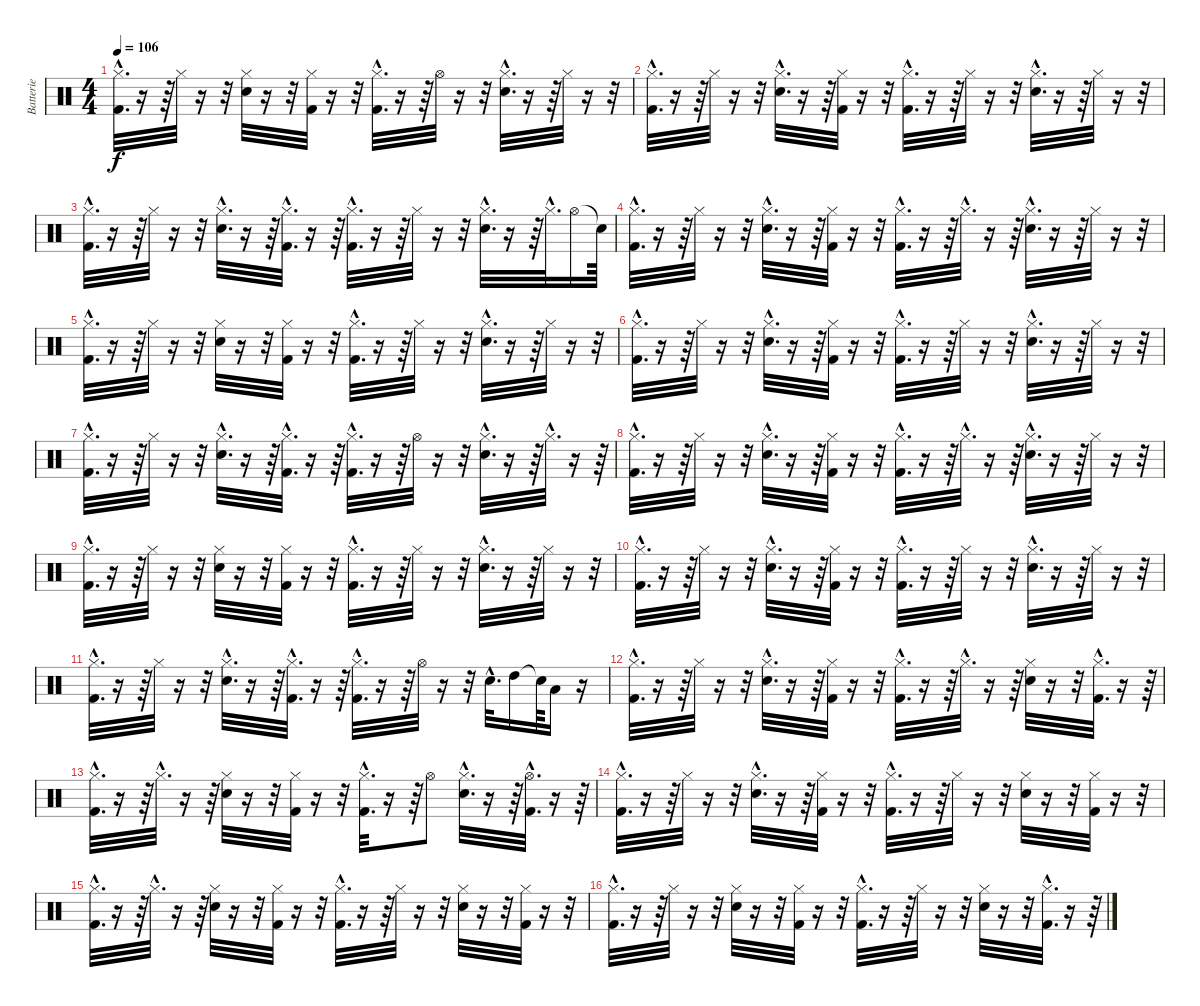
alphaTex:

\track ("Batterie" "Batterie") {instrument percussion}
\staff {score}
\articulation defaults
\ts (4 4)
\tempo 106
\clef neutral
\ks c
("Hi-Hat (closed)"{hac} "Kick (hit) 2"{hac}).32{d dy f} r.16 r.64 "Hi-Hat (closed)".32 r.16 r.32 ("Hi-Hat (closed)" "Snare (hit) 2").32 r.16 r.32 ("Hi-Hat (closed)" "Kick (hit) 2").32 r.16 r.32 ("Hi-Hat (closed)"{hac} "Kick (hit) 2"{hac}).32{d} r.16 r.64 "Hi-Hat (open)".32 r.16 r.32 ("Hi-Hat (closed)"{hac} "Snare (hit) 2"{hac}).32{d} r.16 r.64 "Hi-Hat (closed)".32 r.16 r.32 |
("Hi-Hat (closed)"{hac} "Kick (hit) 2"{hac}).32{d} r.16 r.64 "Hi-Hat (closed)".32 r.16 r.32 ("Hi-Hat (closed)"{hac} "Snare (hit) 2"{hac}).32{d} r.16 r.64 ("Hi-Hat (closed)" "Kick (hit) 2").32 r.16 r.32 ("Hi-Hat (closed)"{hac} "Kick (hit) 2"{hac}).32{d} r.16 r.64 "Hi-Hat (closed)".32 r.16 r.32 ("Hi-Hat (closed)"{hac} "Snare (hit) 2"{hac}).32{d} r.16 r.64 "Hi-Hat (closed)".32 r.16 r.32 |
("Hi-Hat (closed)"{hac} "Kick (hit) 2"{hac}).32{d} r.16 r.64 "Hi-Hat (closed)".32 r.16 r.32 ("Hi-Hat (closed)"{hac} "Snare (hit) 2"{hac}).32{d} r.16 r.64 ("Hi-Hat (closed)"{hac} "Kick (hit) 2"{hac}).32{d} r.16 r.64 ("Hi-Hat (closed)"{hac} "Kick (hit) 2"{hac}).32{d} r.16 r.64 "Hi-Hat (closed)".32 r.16 r.32 ("Hi-Hat (closed)"{hac} "Snare (hit) 2"{hac}).32{d} r.16 r.64 "Hi-Hat (closed)"{hac}.32{d} "Hi-Hat (open)".16 "Snare (hit)"{t}.64 |
("Hi-Hat (closed)"{hac} "Kick (hit) 2"{hac}).32{d} r.16 r.64 "Hi-Hat (closed)".32 r.16 r.32 ("Hi-Hat (closed)"{hac} "Snare (hit) 2"{hac}).32{d} r.16 r.64 ("Hi-Hat (closed)" "Kick (hit) 2").32 r.16 r.32 ("Hi-Hat (closed)"{hac} "Kick (hit) 2"{hac}).32{d} r.16 r.64 "Hi-Hat (closed)"{hac}.32{d} r.16 r.64 ("Hi-Hat (closed)"{hac} "Snare (hit) 2"{hac}).32{d} r.16 r.64 "Hi-Hat (closed)".32 r.16 r.32 |
("Hi-Hat (closed)"{hac} "Kick (hit) 2"{hac}).32{d} r.16 r.64 "Hi-Hat (closed)".32 r.16 r.32 ("Hi-Hat (closed)" "Snare (hit) 2").32 r.16 r.32 ("Hi-Hat (closed)" "Kick (hit) 2").32 r.16 r.32 ("Hi-Hat (closed)"{hac} "Kick (hit) 2"{hac}).32{d} r.16 r.64 "Hi-Hat (closed)".32 r.16 r.32 ("Hi-Hat (closed)"{hac} "Snare (hit) 2"{hac}).32{d} r.16 r.64 "Hi-Hat (closed)".32 r.16 r.32 |
("Hi-Hat (closed)"{hac} "Kick (hit) 2"{hac}).32{d} r.16 r.64 "Hi-Hat (closed)".32 r.16 r.32 ("Hi-Hat (closed)"{hac} "Snare (hit) 2"{hac}).32{d} r.16 r.64 ("Hi-Hat (closed)" "Kick (hit) 2").32 r.16 r.32 ("Hi-Hat (closed)"{hac} "Kick (hit) 2"{hac}).32{d} r.16 r.64 "Hi-Hat (closed)".32 r.16 r.32 ("Hi-Hat (closed)"{hac} "Snare (hit) 2"{hac}).32{d} r.16 r.64 "Hi-Hat (closed)".32 r.16 r.32 |
("Hi-Hat (closed)"{hac} "Kick (hit) 2"{hac}).32{d} r.16 r.64 "Hi-Hat (closed)".32 r.16 r.32 ("Hi-Hat (closed)"{hac} "Snare (hit) 2"{hac}).32{d} r.16 r.64 ("Hi-Hat (closed)"{hac} "Kick (hit) 2"{hac}).32{d} r.16 r.64 ("Hi-Hat (closed)"{hac} "Kick (hit) 2"{hac}).32{d} r.16 r.64 "Hi-Hat (open)".32 r.16 r.32 ("Hi-Hat (closed)"{hac} "Snare (hit) 2"{hac}).32{d} r.16 r.64 "Hi-Hat (closed)"{hac}.32{d} r.16 r.64 |
("Hi-Hat (closed)"{hac} "Kick (hit) 2"{hac}).32{d} r.16 r.64 "Hi-Hat (closed)".32 r.16 r.32 ("Hi-Hat (closed)"{hac} "Snare (hit) 2"{hac}).32{d} r.16 r.64 ("Hi-Hat (closed)" "Kick (hit) 2").32 r.16 r.32 ("Hi-Hat (closed)"{hac} "Kick (hit) 2"{hac}).32{d} r.16 r.64 "Hi-Hat (closed)"{hac}.32{d} r.16 r.64 ("Hi-Hat (closed)"{hac} "Snare (hit) 2"{hac}).32{d} r.16 r.64 "Hi-Hat (closed)".32 r.16 r.32 |
("Hi-Hat (closed)"{hac} "Kick (hit) 2"{hac}).32{d} r.16 r.64 "Hi-Hat (closed)".32 r.16 r.32 ("Hi-Hat (closed)" "Snare (hit) 2").32 r.16 r.32 ("Hi-Hat (closed)" "Kick (hit) 2").32 r.16 r.32 ("Hi-Hat (closed)"{hac} "Kick (hit) 2"{hac}).32{d} r.16 r.64 "Hi-Hat (closed)".32 r.16 r.32 ("Hi-Hat (closed)"{hac} "Snare (hit) 2"{hac}).32{d} r.16 r.64 "Hi-Hat (closed)".32 r.16 r.32 |
("Hi-Hat (closed)"{hac} "Kick (hit) 2"{hac}).32{d} r.16 r.64 "Hi-Hat (closed)".32 r.16 r.32 ("Hi-Hat (closed)"{hac} "Snare (hit) 2"{hac}).32{d} r.16 r.64 ("Hi-Hat (closed)" "Kick (hit) 2").32 r.16 r.32 ("Hi-Hat (closed)"{hac} "Kick (hit) 2"{hac}).32{d} r.16 r.64 "Hi-Hat (closed)".32 r.16 r.32 ("Hi-Hat (closed)"{hac} "Snare (hit) 2"{hac}).32{d} r.16 r.64 "Hi-Hat (closed)".32 r.16 r.32 |
("Hi-Hat (closed)"{hac} "Kick (hit) 2"{hac}).32{d} r.16 r.64 "Hi-Hat (closed)".32 r.16 r.32 ("Hi-Hat (closed)"{hac} "Snare (hit) 2"{hac}).32{d} r.16 r.64 ("Hi-Hat (closed)"{hac} "Kick (hit) 2"{hac}).32{d} r.16 r.64 ("Hi-Hat (closed)"{hac} "Kick (hit) 2"{hac}).32{d} r.16 r.64 "Hi-Hat (open)".32 r.16 r.32 "Snare (hit) 2"{hac}.32{d} "High Tom (hit)".16 "Snare (hit)"{t}.64 "Low Floor Tom (hit)".16 r.16 |
("Hi-Hat (closed)"{hac} "Kick (hit) 2"{hac}).32{d} r.16 r.64 "Hi-Hat (closed)".32 r.16 r.32 ("Hi-Hat (closed)"{hac} "Snare (hit) 2"{hac}).32{d} r.16 r.64 ("Hi-Hat (closed)" "Kick (hit) 2").32 r.16 r.32 ("Hi-Hat (closed)"{hac} "Kick (hit) 2"{hac}).32{d} r.16 r.64 "Hi-Hat (closed)"{hac}.32{d} r.16 r.64 ("Hi-Hat (closed)" "Snare (hit) 2").32 r.16 r.32 ("Hi-Hat (closed)"{hac} "Kick (hit) 2"{hac}).32{d} r.16 r.64 |
("Hi-Hat (closed)"{hac} "Kick (hit) 2"{hac}).32{d} r.16 r.64 "Hi-Hat (closed)"{hac}.32{d} r.16 r.64 ("Hi-Hat (closed)" "Snare (hit) 2").32 r.16 r.32 ("Hi-Hat (closed)" "Kick (hit) 2").32 r.16 r.32 ("Hi-Hat (closed)"{hac} "Kick (hit) 2"{hac}).32{d} r.16 r.64 "Hi-Hat (open)".8 ("Hi-Hat (closed)"{hac} "Snare (hit) 2"{hac}).32{d} r.16 r.64 ("Hi-Hat (open)"{hac} "Kick (hit) 2"{hac}).32{d} r.16 r.64 |
("Hi-Hat (closed)"{hac} "Kick (hit) 2"{hac}).32{d} r.16 r.64 "Hi-Hat (closed)".32 r.16 r.32 ("Hi-Hat (closed)"{hac} "Snare (hit) 2"{hac}).32{d} r.16 r.64 ("Hi-Hat (closed)" "Kick (hit) 2").32 r.16 r.32 ("Hi-Hat (closed)"{hac} "Kick (hit) 2"{hac}).32{d} r.16 r.64 "Hi-Hat (closed)".32 r.16 r.32 ("Hi-Hat (closed)" "Snare (hit) 2").32 r.16 r.32 ("Hi-Hat (closed)" "Kick (hit) 2").32 r.16 r.32 |
("Hi-Hat (closed)"{hac} "Kick (hit) 2"{hac}).32{d} r.16 r.64 "Hi-Hat (closed)"{hac}.32{d} r.16 r.64 ("Hi-Hat (closed)" "Snare (hit) 2").32 r.16 r.32 ("Hi-Hat (closed)" "Kick (hit) 2").32 r.16 r.32 ("Hi-Hat (closed)"{hac} "Kick (hit) 2"{hac}).32{d} r.16 r.64 "Hi-Hat (closed)".32 r.16 r.32 ("Hi-Hat (closed)" "Snare (hit) 2").32 r.16 r.32 ("Hi-Hat (closed)" "Kick (hit) 2").32 r.16 r.32 |
("Hi-Hat (closed)"{hac} "Kick (hit) 2"{hac}).32{d} r.16 r.64 "Hi-Hat (closed)".32 r.16 r.32 ("Hi-Hat (closed)" "Snare (hit) 2").32 r.16 r.32 ("Hi-Hat (closed)" "Kick (hit) 2").32 r.16 r.32 ("Hi-Hat (closed)"{hac} "Kick (hit) 2"{hac}).32{d} r.16 r.64 "Hi-Hat (closed)".32 r.16 r.32 ("Hi-Hat (closed)" "Snare (hit) 2").32 r.16 r.32 ("Hi-Hat (closed)"{hac} "Kick (hit) 2"{hac}).32{d} r.16 r.64
